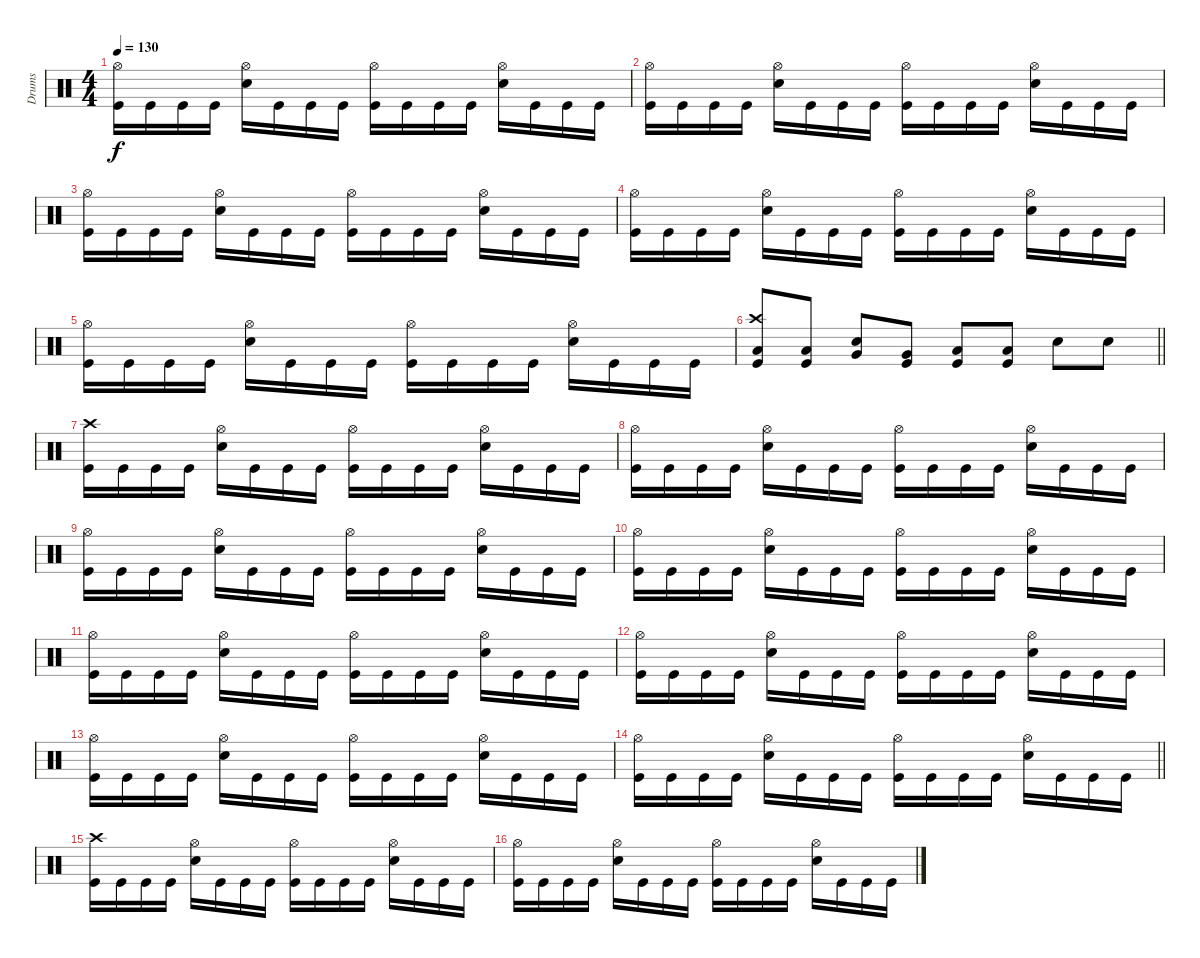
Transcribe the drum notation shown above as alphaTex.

\track ("Drums" "Drums") {instrument percussion}
\staff {score}
\articulation defaults
\ts (4 4)
\tempo 130
\clef neutral
\ks c
("Hi-Hat (open)" "Kick (hit)").16{dy f} "Kick (hit)".16 "Kick (hit)".16 "Kick (hit)".16 ("Hi-Hat (open)" "Electric Snare (hit)").16 "Kick (hit)".16 "Kick (hit)".16 "Kick (hit)".16 ("Hi-Hat (open)" "Kick (hit)").16 "Kick (hit)".16 "Kick (hit)".16 "Kick (hit)".16 ("Hi-Hat (open)" "Electric Snare (hit)").16 "Kick (hit)".16 "Kick (hit)".16 "Kick (hit)".16 |
("Hi-Hat (open)" "Kick (hit)").16 "Kick (hit)".16 "Kick (hit)".16 "Kick (hit)".16 ("Hi-Hat (open)" "Electric Snare (hit)").16 "Kick (hit)".16 "Kick (hit)".16 "Kick (hit)".16 ("Hi-Hat (open)" "Kick (hit)").16 "Kick (hit)".16 "Kick (hit)".16 "Kick (hit)".16 ("Hi-Hat (open)" "Electric Snare (hit)").16 "Kick (hit)".16 "Kick (hit)".16 "Kick (hit)".16 |
("Hi-Hat (open)" "Kick (hit)").16 "Kick (hit)".16 "Kick (hit)".16 "Kick (hit)".16 ("Hi-Hat (open)" "Electric Snare (hit)").16 "Kick (hit)".16 "Kick (hit)".16 "Kick (hit)".16 ("Hi-Hat (open)" "Kick (hit)").16 "Kick (hit)".16 "Kick (hit)".16 "Kick (hit)".16 ("Hi-Hat (open)" "Electric Snare (hit)").16 "Kick (hit)".16 "Kick (hit)".16 "Kick (hit)".16 |
("Hi-Hat (open)" "Kick (hit)").16 "Kick (hit)".16 "Kick (hit)".16 "Kick (hit)".16 ("Hi-Hat (open)" "Electric Snare (hit)").16 "Kick (hit)".16 "Kick (hit)".16 "Kick (hit)".16 ("Hi-Hat (open)" "Kick (hit)").16 "Kick (hit)".16 "Kick (hit)".16 "Kick (hit)".16 ("Hi-Hat (open)" "Electric Snare (hit)").16 "Kick (hit)".16 "Kick (hit)".16 "Kick (hit)".16 |
("Hi-Hat (open)" "Kick (hit)").16 "Kick (hit)".16 "Kick (hit)".16 "Kick (hit)".16 ("Hi-Hat (open)" "Electric Snare (hit)").16 "Kick (hit)".16 "Kick (hit)".16 "Kick (hit)".16 ("Hi-Hat (open)" "Kick (hit)").16 "Kick (hit)".16 "Kick (hit)".16 "Kick (hit)".16 ("Hi-Hat (open)" "Electric Snare (hit)").16 "Kick (hit)".16 "Kick (hit)".16 "Kick (hit)".16 |
\barLineRight lightlight
("Crash high (hit)" "Low Floor Tom (hit)" "Kick (hit)").8 ("Low Floor Tom (hit)" "Kick (hit)").8 ("Very Low Tom (hit)" "Electric Snare (hit)").8 ("Very Low Tom (hit)" "Kick (hit)").8 ("Low Tom (hit)" "Kick (hit)").8 ("Low Tom (hit)" "Kick (hit)").8 "Electric Snare (hit)".8 "Electric Snare (hit)".8 |
("Crash high (hit)" "Kick (hit)").16 "Kick (hit)".16 "Kick (hit)".16 "Kick (hit)".16 ("Hi-Hat (open)" "Electric Snare (hit)").16 "Kick (hit)".16 "Kick (hit)".16 "Kick (hit)".16 ("Hi-Hat (open)" "Kick (hit)").16 "Kick (hit)".16 "Kick (hit)".16 "Kick (hit)".16 ("Hi-Hat (open)" "Electric Snare (hit)").16 "Kick (hit)".16 "Kick (hit)".16 "Kick (hit)".16 |
("Hi-Hat (open)" "Kick (hit)").16 "Kick (hit)".16 "Kick (hit)".16 "Kick (hit)".16 ("Hi-Hat (open)" "Electric Snare (hit)").16 "Kick (hit)".16 "Kick (hit)".16 "Kick (hit)".16 ("Hi-Hat (open)" "Kick (hit)").16 "Kick (hit)".16 "Kick (hit)".16 "Kick (hit)".16 ("Hi-Hat (open)" "Electric Snare (hit)").16 "Kick (hit)".16 "Kick (hit)".16 "Kick (hit)".16 |
("Hi-Hat (open)" "Kick (hit)").16 "Kick (hit)".16 "Kick (hit)".16 "Kick (hit)".16 ("Hi-Hat (open)" "Electric Snare (hit)").16 "Kick (hit)".16 "Kick (hit)".16 "Kick (hit)".16 ("Hi-Hat (open)" "Kick (hit)").16 "Kick (hit)".16 "Kick (hit)".16 "Kick (hit)".16 ("Hi-Hat (open)" "Electric Snare (hit)").16 "Kick (hit)".16 "Kick (hit)".16 "Kick (hit)".16 |
("Hi-Hat (open)" "Kick (hit)").16 "Kick (hit)".16 "Kick (hit)".16 "Kick (hit)".16 ("Hi-Hat (open)" "Electric Snare (hit)").16 "Kick (hit)".16 "Kick (hit)".16 "Kick (hit)".16 ("Hi-Hat (open)" "Kick (hit)").16 "Kick (hit)".16 "Kick (hit)".16 "Kick (hit)".16 ("Hi-Hat (open)" "Electric Snare (hit)").16 "Kick (hit)".16 "Kick (hit)".16 "Kick (hit)".16 |
("Hi-Hat (open)" "Kick (hit)").16 "Kick (hit)".16 "Kick (hit)".16 "Kick (hit)".16 ("Hi-Hat (open)" "Electric Snare (hit)").16 "Kick (hit)".16 "Kick (hit)".16 "Kick (hit)".16 ("Hi-Hat (open)" "Kick (hit)").16 "Kick (hit)".16 "Kick (hit)".16 "Kick (hit)".16 ("Hi-Hat (open)" "Electric Snare (hit)").16 "Kick (hit)".16 "Kick (hit)".16 "Kick (hit)".16 |
("Hi-Hat (open)" "Kick (hit)").16 "Kick (hit)".16 "Kick (hit)".16 "Kick (hit)".16 ("Hi-Hat (open)" "Electric Snare (hit)").16 "Kick (hit)".16 "Kick (hit)".16 "Kick (hit)".16 ("Hi-Hat (open)" "Kick (hit)").16 "Kick (hit)".16 "Kick (hit)".16 "Kick (hit)".16 ("Hi-Hat (open)" "Electric Snare (hit)").16 "Kick (hit)".16 "Kick (hit)".16 "Kick (hit)".16 |
("Hi-Hat (open)" "Kick (hit)").16 "Kick (hit)".16 "Kick (hit)".16 "Kick (hit)".16 ("Hi-Hat (open)" "Electric Snare (hit)").16 "Kick (hit)".16 "Kick (hit)".16 "Kick (hit)".16 ("Hi-Hat (open)" "Kick (hit)").16 "Kick (hit)".16 "Kick (hit)".16 "Kick (hit)".16 ("Hi-Hat (open)" "Electric Snare (hit)").16 "Kick (hit)".16 "Kick (hit)".16 "Kick (hit)".16 |
\barLineRight lightlight
("Hi-Hat (open)" "Kick (hit)").16 "Kick (hit)".16 "Kick (hit)".16 "Kick (hit)".16 ("Hi-Hat (open)" "Electric Snare (hit)").16 "Kick (hit)".16 "Kick (hit)".16 "Kick (hit)".16 ("Hi-Hat (open)" "Kick (hit)").16 "Kick (hit)".16 "Kick (hit)".16 "Kick (hit)".16 ("Hi-Hat (open)" "Electric Snare (hit)").16 "Kick (hit)".16 "Kick (hit)".16 "Kick (hit)".16 |
("Crash high (hit)" "Kick (hit)").16 "Kick (hit)".16 "Kick (hit)".16 "Kick (hit)".16 ("Hi-Hat (open)" "Electric Snare (hit)").16 "Kick (hit)".16 "Kick (hit)".16 "Kick (hit)".16 ("Hi-Hat (open)" "Kick (hit)").16 "Kick (hit)".16 "Kick (hit)".16 "Kick (hit)".16 ("Hi-Hat (open)" "Electric Snare (hit)").16 "Kick (hit)".16 "Kick (hit)".16 "Kick (hit)".16 |
("Hi-Hat (open)" "Kick (hit)").16 "Kick (hit)".16 "Kick (hit)".16 "Kick (hit)".16 ("Hi-Hat (open)" "Electric Snare (hit)").16 "Kick (hit)".16 "Kick (hit)".16 "Kick (hit)".16 ("Hi-Hat (open)" "Kick (hit)").16 "Kick (hit)".16 "Kick (hit)".16 "Kick (hit)".16 ("Hi-Hat (open)" "Electric Snare (hit)").16 "Kick (hit)".16 "Kick (hit)".16 "Kick (hit)".16
